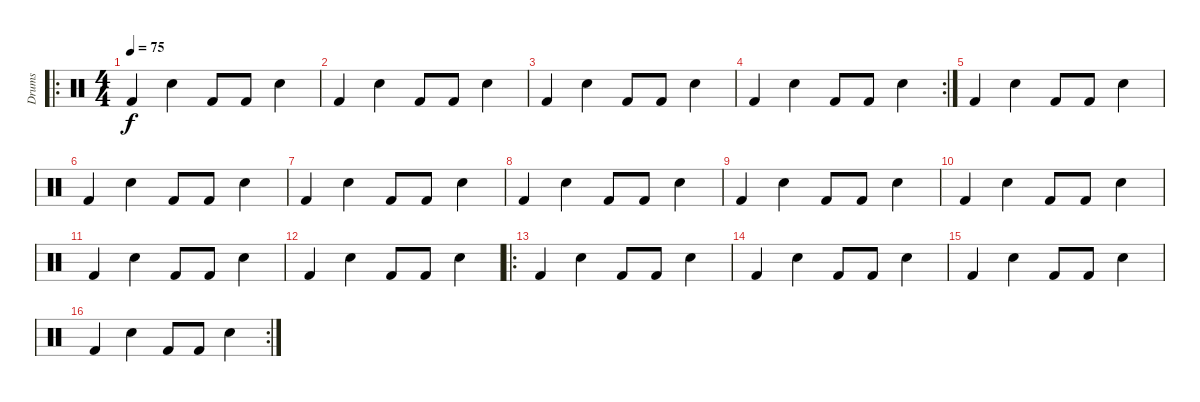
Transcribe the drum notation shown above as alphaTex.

\track ("Drums" "Drums") {instrument percussion}
\staff {score}
\articulation defaults
\ro
\ts (4 4)
\tempo 75
\clef neutral
\ks c "Kick (hit) 2".4{dy f} "Snare (hit) 2".4 "Kick (hit) 2".8 "Kick (hit) 2".8 "Snare (hit) 2".4
|
"Kick (hit) 2".4 "Snare (hit) 2".4 "Kick (hit) 2".8 "Kick (hit) 2".8 "Snare (hit) 2".4 |
"Kick (hit) 2".4 "Snare (hit) 2".4 "Kick (hit) 2".8 "Kick (hit) 2".8 "Snare (hit) 2".4 |
\rc 2 "Kick (hit) 2".4 "Snare (hit) 2".4 "Kick (hit) 2".8 "Kick (hit) 2".8 "Snare (hit) 2".4
|
"Kick (hit) 2".4 "Snare (hit) 2".4 "Kick (hit) 2".8 "Kick (hit) 2".8 "Snare (hit) 2".4 |
"Kick (hit) 2".4 "Snare (hit) 2".4 "Kick (hit) 2".8 "Kick (hit) 2".8 "Snare (hit) 2".4 |
"Kick (hit) 2".4 "Snare (hit) 2".4 "Kick (hit) 2".8 "Kick (hit) 2".8 "Snare (hit) 2".4 |
"Kick (hit) 2".4 "Snare (hit) 2".4 "Kick (hit) 2".8 "Kick (hit) 2".8 "Snare (hit) 2".4 |
"Kick (hit) 2".4 "Snare (hit) 2".4 "Kick (hit) 2".8 "Kick (hit) 2".8 "Snare (hit) 2".4 |
"Kick (hit) 2".4 "Snare (hit) 2".4 "Kick (hit) 2".8 "Kick (hit) 2".8 "Snare (hit) 2".4 |
"Kick (hit) 2".4 "Snare (hit) 2".4 "Kick (hit) 2".8 "Kick (hit) 2".8 "Snare (hit) 2".4 |
"Kick (hit) 2".4 "Snare (hit) 2".4 "Kick (hit) 2".8 "Kick (hit) 2".8 "Snare (hit) 2".4 |
\ro "Kick (hit) 2".4 "Snare (hit) 2".4 "Kick (hit) 2".8 "Kick (hit) 2".8 "Snare (hit) 2".4
|
"Kick (hit) 2".4 "Snare (hit) 2".4 "Kick (hit) 2".8 "Kick (hit) 2".8 "Snare (hit) 2".4 |
"Kick (hit) 2".4 "Snare (hit) 2".4 "Kick (hit) 2".8 "Kick (hit) 2".8 "Snare (hit) 2".4 |
\rc 2 "Kick (hit) 2".4 "Snare (hit) 2".4 "Kick (hit) 2".8 "Kick (hit) 2".8 "Snare (hit) 2".4
